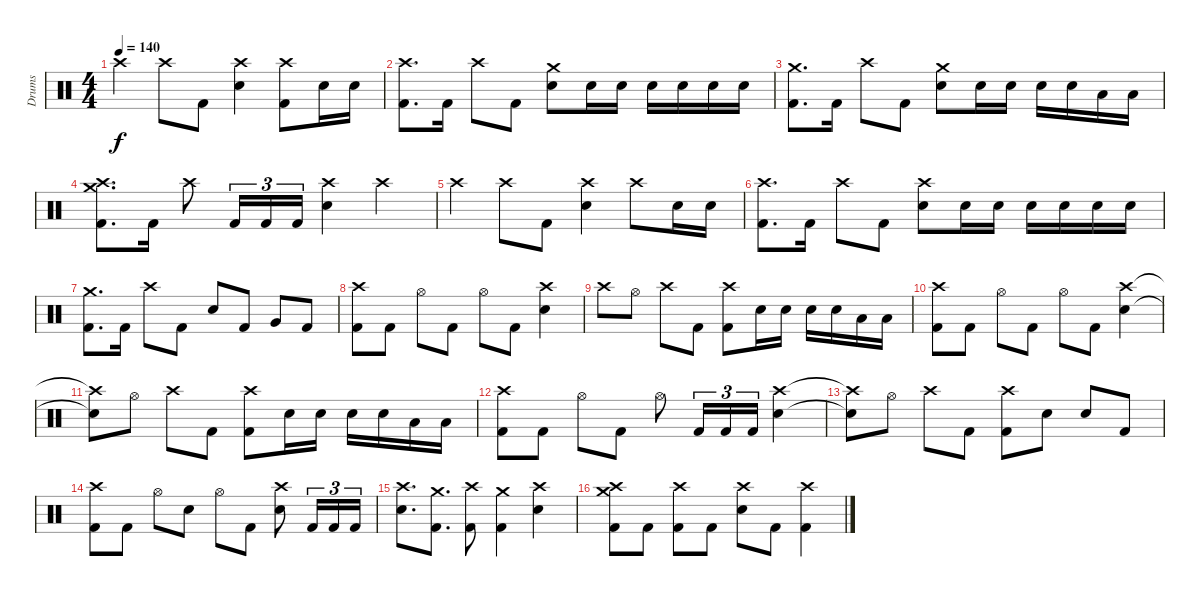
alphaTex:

\track ("Drums" "Drums") {instrument percussion}
\staff {score}
\articulation defaults
\ts (4 4)
\tempo 140
\clef neutral
\ks c "Crash high (hit)".4{dy f} "Crash high (hit)".8 "Kick (hit) 2".8
("Crash high (hit)" "Electric Snare (hit)").4 ("Crash high (hit)" "Kick (hit) 2").8 "Electric Snare (hit)".16 "Electric Snare (hit)".16 |
("Crash high (hit)" "Kick (hit) 2").8{d} "Kick (hit) 2".16 "Crash high (hit)".8 "Kick (hit) 2".8 ("Crash medium (hit)" "Electric Snare (hit)").8 "Electric Snare (hit)".16 "Electric Snare (hit)".16 "Electric Snare (hit)".16 "Electric Snare (hit)".16 "Electric Snare (hit)".16 "Electric Snare (hit)".16 |
("Crash medium (hit)" "Kick (hit) 2").8{d} "Kick (hit) 2".16 "Crash high (hit)".8 "Kick (hit) 2".8 ("Crash medium (hit)" "Electric Snare (hit)").8 "Electric Snare (hit)".16 "Electric Snare (hit)".16 "Electric Snare (hit)".16 "Electric Snare (hit)".16 "Low Tom (hit)".16 "Low Tom (hit)".16 |
("Crash high (hit)" "Crash medium (hit)" "Kick (hit) 2").8{d} "Kick (hit) 2".16 "Crash high (hit)".8 "Kick (hit) 2".16{tu (3 2)} "Kick (hit) 2".16{tu (3 2)} "Kick (hit) 2".16{tu (3 2)} ("Crash high (hit)" "Electric Snare (hit)").4 "Crash high (hit)".4 |
"Crash high (hit)".4 "Crash high (hit)".8 "Kick (hit) 2".8 ("Crash high (hit)" "Electric Snare (hit)").4 "Crash high (hit)".8 "Electric Snare (hit)".16 "Electric Snare (hit)".16 |
("Crash high (hit)" "Kick (hit) 2").8{d} "Kick (hit) 2".16 "Crash high (hit)".8 "Kick (hit) 2".8 ("Crash high (hit)" "Electric Snare (hit)").8 "Electric Snare (hit)".16 "Electric Snare (hit)".16 "Electric Snare (hit)".16 "Electric Snare (hit)".16 "Electric Snare (hit)".16 "Electric Snare (hit)".16 |
("Crash medium (hit)" "Kick (hit) 2").8{d} "Kick (hit) 2".16 "Crash high (hit)".8 "Kick (hit) 2".8 "Electric Snare (hit)".8 "Kick (hit) 2".8 "Very Low Tom (hit)".8 "Kick (hit) 2".8 |
("Crash high (hit)" "Kick (hit) 2").8 "Kick (hit) 2".8 "Hi-Hat (open)".8 "Kick (hit) 2".8 "Hi-Hat (open)".8 "Kick (hit) 2".8 ("Crash high (hit)" "Electric Snare (hit)").4 |
"Crash high (hit)".8 "Hi-Hat (open)".8 "Crash high (hit)".8 "Kick (hit) 2".8 ("Crash high (hit)" "Kick (hit) 2").8 "Electric Snare (hit)".16 "Electric Snare (hit)".16 "Electric Snare (hit)".16 "Electric Snare (hit)".16 "Low Tom (hit)".16 "Low Tom (hit)".16 |
("Crash high (hit)" "Kick (hit) 2").8 "Kick (hit) 2".8 "Hi-Hat (open)".8 "Kick (hit) 2".8 "Hi-Hat (open)".8 "Kick (hit) 2".8 ("Crash high (hit)" "Electric Snare (hit)").4 |
("Crash high (hit)"{t} "Snare (hit)"{t}).8 "Hi-Hat (open)".8 "Crash high (hit)".8 "Kick (hit) 2".8 ("Crash high (hit)" "Kick (hit) 2").8 "Electric Snare (hit)".16 "Electric Snare (hit)".16 "Electric Snare (hit)".16 "Electric Snare (hit)".16 "Low Tom (hit)".16 "Low Tom (hit)".16 |
("Crash high (hit)" "Kick (hit) 2").8 "Kick (hit) 2".8 "Hi-Hat (open)".8 "Kick (hit) 2".8 "Hi-Hat (open)".8 "Kick (hit) 2".16{tu (3 2)} "Kick (hit) 2".16{tu (3 2)} "Kick (hit) 2".16{tu (3 2)} ("Crash high (hit)" "Electric Snare (hit)").4 |
("Crash high (hit)"{t} "Snare (hit)"{t}).8 "Hi-Hat (open)".8 "Crash high (hit)".8 "Kick (hit) 2".8 ("Crash high (hit)" "Kick (hit) 2").8 "Electric Snare (hit)".8 "Electric Snare (hit)".8 "Kick (hit) 2".8 |
("Crash high (hit)" "Kick (hit) 2").8 "Kick (hit) 2".8 "Hi-Hat (open)".8 "Electric Snare (hit)".8 "Hi-Hat (open)".8 "Kick (hit) 2".8 ("Crash high (hit)" "Electric Snare (hit)").8 "Kick (hit) 2".16{tu (3 2)} "Kick (hit) 2".16{tu (3 2)} "Kick (hit) 2".16{tu (3 2)} |
("Crash high (hit)" "Electric Snare (hit)").8{d} ("Crash medium (hit)" "Kick (hit) 2").8{d} ("Crash high (hit)" "Kick (hit) 2").8 ("Crash medium (hit)" "Kick (hit) 2").4 ("Crash high (hit)" "Electric Snare (hit)").4 |
("Crash high (hit)" "Crash medium (hit)" "Kick (hit) 2").8 "Kick (hit) 2".8 ("Crash high (hit)" "Kick (hit) 2").8 "Kick (hit) 2".8 ("Crash high (hit)" "Electric Snare (hit)").8 "Kick (hit) 2".8 ("Crash high (hit)" "Kick (hit) 2").4
